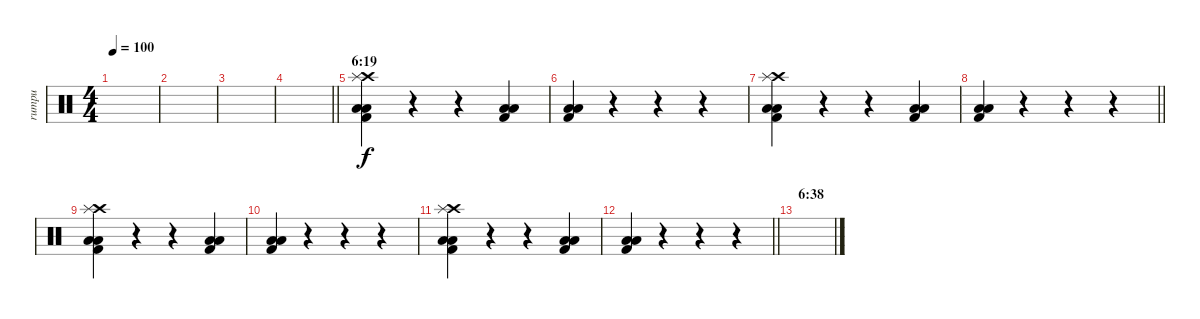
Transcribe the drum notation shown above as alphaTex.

\track ("rumpu" "rumpu") {instrument percussion}
\staff {score}
\articulation defaults
\ts (4 4)
\tempo 100
\clef neutral
\ks c
|
|
|
\barLineRight lightlight
|
\section ("" "6:19")
("Kick (hit) 2" "Low Tom (hit)" "Low Floor Tom (hit)" "Crash high (hit)" "Splash (hit)").4 r.4 r.4 ("Kick (hit) 2" "Low Tom (hit)" "Low Floor Tom (hit)").4 |
("Kick (hit) 2" "Low Tom (hit)" "Low Floor Tom (hit)").4 r.4 r.4 r.4 |
("Kick (hit) 2" "Low Tom (hit)" "Low Floor Tom (hit)" "Crash high (hit)" "Splash (hit)").4 r.4 r.4 ("Kick (hit) 2" "Low Tom (hit)" "Low Floor Tom (hit)").4 |
\barLineRight lightlight
("Kick (hit) 2" "Low Tom (hit)" "Low Floor Tom (hit)").4 r.4 r.4 r.4 |
("Kick (hit) 2" "Low Tom (hit)" "Low Floor Tom (hit)" "Crash high (hit)" "Splash (hit)").4 r.4 r.4 ("Kick (hit) 2" "Low Tom (hit)" "Low Floor Tom (hit)").4 |
("Kick (hit) 2" "Low Tom (hit)" "Low Floor Tom (hit)").4 r.4 r.4 r.4 |
("Kick (hit) 2" "Low Tom (hit)" "Low Floor Tom (hit)" "Crash high (hit)" "Splash (hit)").4 r.4 r.4 ("Kick (hit) 2" "Low Tom (hit)" "Low Floor Tom (hit)").4 |
\barLineRight lightlight
("Kick (hit) 2" "Low Tom (hit)" "Low Floor Tom (hit)").4 r.4 r.4 r.4 |
\section ("" "6:38")
